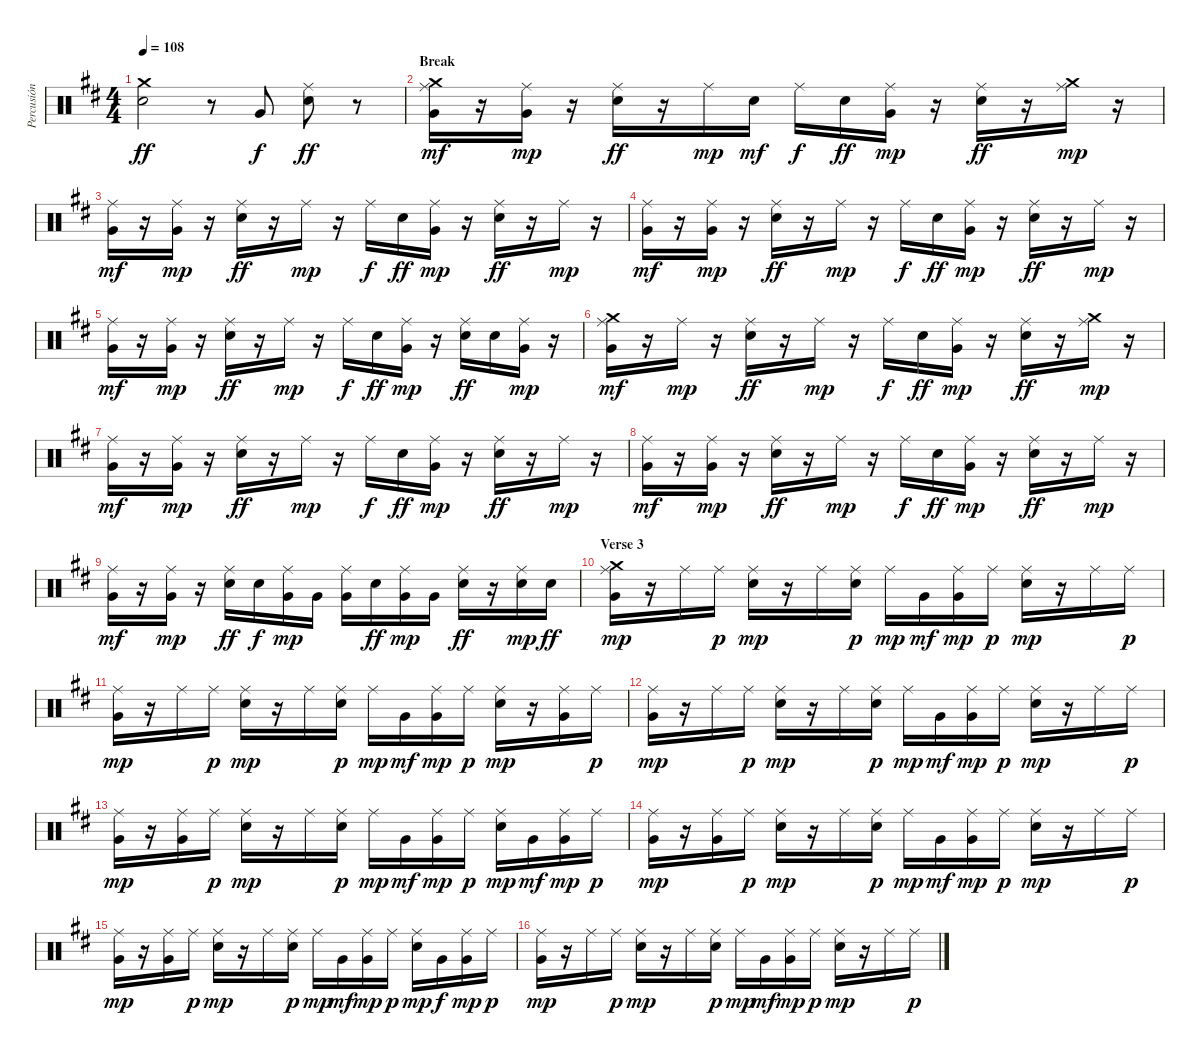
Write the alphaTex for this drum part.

\track ("Percusión" "Percusión") {instrument percussion}
\staff {score}
\articulation defaults
\ts (4 4)
\tempo 108
\clef neutral
\ks bminor
("Crash medium (hit)" "Electric Snare (hit)").2{dy ff} r.8 "Very Low Tom (hit)".8{dy f} ("Electric Snare (hit)" "Ride (middle)").8{dy ff} r.8 |
\section ("" "Break")
("Crash medium (hit)" "Very Low Tom (hit)" "Ride (middle)").16{dy mf} r.16 ("Very Low Tom (hit)" "Ride (middle)").16{dy mp} r.16 ("Electric Snare (hit)" "Ride (middle)").16{dy ff} r.16 "Ride (middle)".16{dy mp} "Electric Snare (hit)".16{dy mf} "Ride (middle)".16{dy f} "Electric Snare (hit)".16{dy ff} ("Very Low Tom (hit)" "Ride (middle)").16{dy mp} r.16 ("Electric Snare (hit)" "Ride (middle)").16{dy ff} r.16 ("Crash medium (hit)" "Ride (middle)").16{dy mp} r.16 |
("Very Low Tom (hit)" "Ride (middle)").16{dy mf} r.16 ("Very Low Tom (hit)" "Ride (middle)").16{dy mp} r.16 ("Electric Snare (hit)" "Ride (middle)").16{dy ff} r.16 "Ride (middle)".16{dy mp} r.16 "Ride (middle)".16{dy f} "Electric Snare (hit)".16{dy ff} ("Very Low Tom (hit)" "Ride (middle)").16{dy mp} r.16 ("Electric Snare (hit)" "Ride (middle)").16{dy ff} r.16 "Ride (middle)".16{dy mp} r.16 |
("Very Low Tom (hit)" "Ride (middle)").16{dy mf} r.16 ("Very Low Tom (hit)" "Ride (middle)").16{dy mp} r.16 ("Electric Snare (hit)" "Ride (middle)").16{dy ff} r.16 "Ride (middle)".16{dy mp} r.16 "Ride (middle)".16{dy f} "Electric Snare (hit)".16{dy ff} ("Very Low Tom (hit)" "Ride (middle)").16{dy mp} r.16 ("Electric Snare (hit)" "Ride (middle)").16{dy ff} r.16 "Ride (middle)".16{dy mp} r.16 |
("Very Low Tom (hit)" "Ride (middle)").16{dy mf} r.16 ("Very Low Tom (hit)" "Ride (middle)").16{dy mp} r.16 ("Electric Snare (hit)" "Ride (middle)").16{dy ff} r.16 "Ride (middle)".16{dy mp} r.16 "Ride (middle)".16{dy f} "Electric Snare (hit)".16{dy ff} ("Very Low Tom (hit)" "Ride (middle)").16{dy mp} r.16 ("Electric Snare (hit)" "Ride (middle)").16{dy ff} "Electric Snare (hit)".16 ("Very Low Tom (hit)" "Ride (middle)").16{dy mp} r.16 |
("Crash medium (hit)" "Very Low Tom (hit)" "Ride (middle)").16{dy mf} r.16 "Ride (middle)".16{dy mp} r.16 ("Electric Snare (hit)" "Ride (middle)").16{dy ff} r.16 "Ride (middle)".16{dy mp} r.16 "Ride (middle)".16{dy f} "Electric Snare (hit)".16{dy ff} ("Very Low Tom (hit)" "Ride (middle)").16{dy mp} r.16 ("Electric Snare (hit)" "Ride (middle)").16{dy ff} r.16 ("Crash medium (hit)" "Ride (middle)").16{dy mp} r.16 |
("Very Low Tom (hit)" "Ride (middle)").16{dy mf} r.16 ("Very Low Tom (hit)" "Ride (middle)").16{dy mp} r.16 ("Electric Snare (hit)" "Ride (middle)").16{dy ff} r.16 "Ride (middle)".16{dy mp} r.16 "Ride (middle)".16{dy f} "Electric Snare (hit)".16{dy ff} ("Very Low Tom (hit)" "Ride (middle)").16{dy mp} r.16 ("Electric Snare (hit)" "Ride (middle)").16{dy ff} r.16 "Ride (middle)".16{dy mp} r.16 |
("Very Low Tom (hit)" "Ride (middle)").16{dy mf} r.16 ("Very Low Tom (hit)" "Ride (middle)").16{dy mp} r.16 ("Electric Snare (hit)" "Ride (middle)").16{dy ff} r.16 "Ride (middle)".16{dy mp} r.16 "Ride (middle)".16{dy f} "Electric Snare (hit)".16{dy ff} ("Very Low Tom (hit)" "Ride (middle)").16{dy mp} r.16 ("Electric Snare (hit)" "Ride (middle)").16{dy ff} r.16 "Ride (middle)".16{dy mp} r.16 |
("Very Low Tom (hit)" "Ride (middle)").16{dy mf} r.16 ("Very Low Tom (hit)" "Ride (middle)").16{dy mp} r.16 ("Electric Snare (hit)" "Ride (middle)").16{dy ff} "Electric Snare (hit)".16{dy f} ("Very Low Tom (hit)" "Ride (middle)").16{dy mp} "Very Low Tom (hit)".16 ("Very Low Tom (hit)" "Ride (middle)").16 "Electric Snare (hit)".16{dy ff} ("Very Low Tom (hit)" "Ride (middle)").16{dy mp} "Very Low Tom (hit)".16 ("Electric Snare (hit)" "Ride (middle)").16{dy ff} r.16 ("Electric Snare (hit)" "Ride (middle)").16{dy mp} "Electric Snare (hit)".16{dy ff} |
\section ("" "Verse 3")
("Crash medium (hit)" "Very Low Tom (hit)" "Ride (middle)").16{dy mp} r.16 "Ride (middle)".16 "Ride (middle)".16{dy p} ("Electric Snare (hit)" "Ride (middle)").16{dy mp} r.16 "Ride (middle)".16 ("Electric Snare (hit)" "Ride (middle)").16{dy p} "Ride (middle)".16{dy mp} "Very Low Tom (hit)".16{dy mf} ("Very Low Tom (hit)" "Ride (middle)").16{dy mp} "Ride (middle)".16{dy p} ("Electric Snare (hit)" "Ride (middle)").16{dy mp} r.16 "Ride (middle)".16 "Ride (middle)".16{dy p} |
("Very Low Tom (hit)" "Ride (middle)").16{dy mp} r.16 "Ride (middle)".16 "Ride (middle)".16{dy p} ("Electric Snare (hit)" "Ride (middle)").16{dy mp} r.16 "Ride (middle)".16 ("Electric Snare (hit)" "Ride (middle)").16{dy p} "Ride (middle)".16{dy mp} "Very Low Tom (hit)".16{dy mf} ("Very Low Tom (hit)" "Ride (middle)").16{dy mp} "Ride (middle)".16{dy p} ("Electric Snare (hit)" "Ride (middle)").16{dy mp} r.16 ("Very Low Tom (hit)" "Ride (middle)").16 "Ride (middle)".16{dy p} |
("Very Low Tom (hit)" "Ride (middle)").16{dy mp} r.16 "Ride (middle)".16 "Ride (middle)".16{dy p} ("Electric Snare (hit)" "Ride (middle)").16{dy mp} r.16 "Ride (middle)".16 ("Electric Snare (hit)" "Ride (middle)").16{dy p} "Ride (middle)".16{dy mp} "Very Low Tom (hit)".16{dy mf} ("Very Low Tom (hit)" "Ride (middle)").16{dy mp} "Ride (middle)".16{dy p} ("Electric Snare (hit)" "Ride (middle)").16{dy mp} r.16 "Ride (middle)".16 "Ride (middle)".16{dy p} |
("Very Low Tom (hit)" "Ride (middle)").16{dy mp} r.16 ("Very Low Tom (hit)" "Ride (middle)").16 "Ride (middle)".16{dy p} ("Electric Snare (hit)" "Ride (middle)").16{dy mp} r.16 "Ride (middle)".16 ("Electric Snare (hit)" "Ride (middle)").16{dy p} "Ride (middle)".16{dy mp} "Very Low Tom (hit)".16{dy mf} ("Very Low Tom (hit)" "Ride (middle)").16{dy mp} "Ride (middle)".16{dy p} ("Electric Snare (hit)" "Ride (middle)").16{dy mp} "Very Low Tom (hit)".16{dy mf} ("Very Low Tom (hit)" "Ride (middle)").16{dy mp} "Ride (middle)".16{dy p} |
("Very Low Tom (hit)" "Ride (middle)").16{dy mp} r.16 ("Very Low Tom (hit)" "Ride (middle)").16 "Ride (middle)".16{dy p} ("Electric Snare (hit)" "Ride (middle)").16{dy mp} r.16 "Ride (middle)".16 ("Electric Snare (hit)" "Ride (middle)").16{dy p} "Ride (middle)".16{dy mp} "Very Low Tom (hit)".16{dy mf} ("Very Low Tom (hit)" "Ride (middle)").16{dy mp} "Ride (middle)".16{dy p} ("Electric Snare (hit)" "Ride (middle)").16{dy mp} r.16 "Ride (middle)".16 "Ride (middle)".16{dy p} |
("Very Low Tom (hit)" "Ride (middle)").16{dy mp} r.16 ("Very Low Tom (hit)" "Ride (middle)").16 "Ride (middle)".16{dy p} ("Electric Snare (hit)" "Ride (middle)").16{dy mp} r.16 "Ride (middle)".16 ("Electric Snare (hit)" "Ride (middle)").16{dy p} "Ride (middle)".16{dy mp} "Very Low Tom (hit)".16{dy mf} ("Very Low Tom (hit)" "Ride (middle)").16{dy mp} "Ride (middle)".16{dy p} ("Electric Snare (hit)" "Ride (middle)").16{dy mp} "Very Low Tom (hit)".16{dy f} ("Very Low Tom (hit)" "Ride (middle)").16{dy mp} "Ride (middle)".16{dy p} |
("Very Low Tom (hit)" "Ride (middle)").16{dy mp} r.16 "Ride (middle)".16 "Ride (middle)".16{dy p} ("Electric Snare (hit)" "Ride (middle)").16{dy mp} r.16 "Ride (middle)".16 ("Electric Snare (hit)" "Ride (middle)").16{dy p} "Ride (middle)".16{dy mp} "Very Low Tom (hit)".16{dy mf} ("Very Low Tom (hit)" "Ride (middle)").16{dy mp} "Ride (middle)".16{dy p} ("Electric Snare (hit)" "Ride (middle)").16{dy mp} r.16 "Ride (middle)".16 "Ride (middle)".16{dy p}
